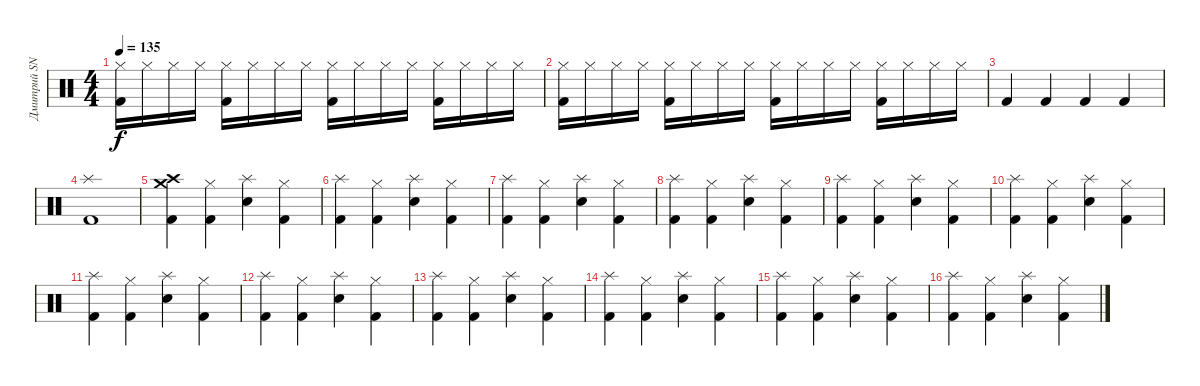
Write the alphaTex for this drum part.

\track ("Дмитрий SNAKE Хакимов" "Дмитрий SN") {instrument percussion}
\staff {score}
\articulation defaults
\ts (4 4)
\tempo 135
\clef neutral
\ks c
("Hi-Hat (closed)" "Kick (hit) 2").16{dy f} "Hi-Hat (closed)".16 "Hi-Hat (closed)".16 "Hi-Hat (closed)".16 ("Hi-Hat (closed)" "Kick (hit) 2").16 "Hi-Hat (closed)".16 "Hi-Hat (closed)".16 "Hi-Hat (closed)".16 ("Hi-Hat (closed)" "Kick (hit) 2").16 "Hi-Hat (closed)".16 "Hi-Hat (closed)".16 "Hi-Hat (closed)".16 ("Hi-Hat (closed)" "Kick (hit) 2").16 "Hi-Hat (closed)".16 "Hi-Hat (closed)".16 "Hi-Hat (closed)".16 |
("Hi-Hat (closed)" "Kick (hit) 2").16 "Hi-Hat (closed)".16 "Hi-Hat (closed)".16 "Hi-Hat (closed)".16 ("Hi-Hat (closed)" "Kick (hit) 2").16 "Hi-Hat (closed)".16 "Hi-Hat (closed)".16 "Hi-Hat (closed)".16 ("Hi-Hat (closed)" "Kick (hit) 2").16 "Hi-Hat (closed)".16 "Hi-Hat (closed)".16 "Hi-Hat (closed)".16 ("Hi-Hat (closed)" "Kick (hit) 2").16 "Hi-Hat (closed)".16 "Hi-Hat (closed)".16 "Hi-Hat (closed)".16 |
"Kick (hit) 2".4 "Kick (hit) 2".4 "Kick (hit) 2".4 "Kick (hit) 2".4 |
("Splash (hit)" "Kick (hit) 2").1 |
("Crash high (hit)" "Crash medium (hit)" "Kick (hit) 2").4 ("Hi-Hat (closed)" "Kick (hit) 2").4 ("Splash (hit)" "Snare (hit) 2").4 ("Hi-Hat (closed)" "Kick (hit) 2").4 |
("Splash (hit)" "Kick (hit) 2").4 ("Hi-Hat (closed)" "Kick (hit) 2").4 ("Splash (hit)" "Snare (hit) 2").4 ("Hi-Hat (closed)" "Kick (hit) 2").4 |
("Splash (hit)" "Kick (hit) 2").4 ("Hi-Hat (closed)" "Kick (hit) 2").4 ("Splash (hit)" "Snare (hit) 2").4 ("Hi-Hat (closed)" "Kick (hit) 2").4 |
("Splash (hit)" "Kick (hit) 2").4 ("Hi-Hat (closed)" "Kick (hit) 2").4 ("Splash (hit)" "Snare (hit) 2").4 ("Hi-Hat (closed)" "Kick (hit) 2").4 |
("Splash (hit)" "Kick (hit) 2").4 ("Hi-Hat (closed)" "Kick (hit) 2").4 ("Splash (hit)" "Snare (hit) 2").4 ("Hi-Hat (closed)" "Kick (hit) 2").4 |
("Splash (hit)" "Kick (hit) 2").4 ("Hi-Hat (closed)" "Kick (hit) 2").4 ("Splash (hit)" "Snare (hit) 2").4 ("Hi-Hat (closed)" "Kick (hit) 2").4 |
("Splash (hit)" "Kick (hit) 2").4 ("Hi-Hat (closed)" "Kick (hit) 2").4 ("Splash (hit)" "Snare (hit) 2").4 ("Hi-Hat (closed)" "Kick (hit) 2").4 |
("Splash (hit)" "Kick (hit) 2").4 ("Hi-Hat (closed)" "Kick (hit) 2").4 ("Splash (hit)" "Snare (hit) 2").4 ("Hi-Hat (closed)" "Kick (hit) 2").4 |
("Splash (hit)" "Kick (hit) 2").4 ("Hi-Hat (closed)" "Kick (hit) 2").4 ("Splash (hit)" "Snare (hit) 2").4 ("Hi-Hat (closed)" "Kick (hit) 2").4 |
("Splash (hit)" "Kick (hit) 2").4 ("Hi-Hat (closed)" "Kick (hit) 2").4 ("Splash (hit)" "Snare (hit) 2").4 ("Hi-Hat (closed)" "Kick (hit) 2").4 |
("Splash (hit)" "Kick (hit) 2").4 ("Hi-Hat (closed)" "Kick (hit) 2").4 ("Splash (hit)" "Snare (hit) 2").4 ("Hi-Hat (closed)" "Kick (hit) 2").4 |
("Splash (hit)" "Kick (hit) 2").4 ("Hi-Hat (closed)" "Kick (hit) 2").4 ("Splash (hit)" "Snare (hit) 2").4 ("Hi-Hat (closed)" "Kick (hit) 2").4
